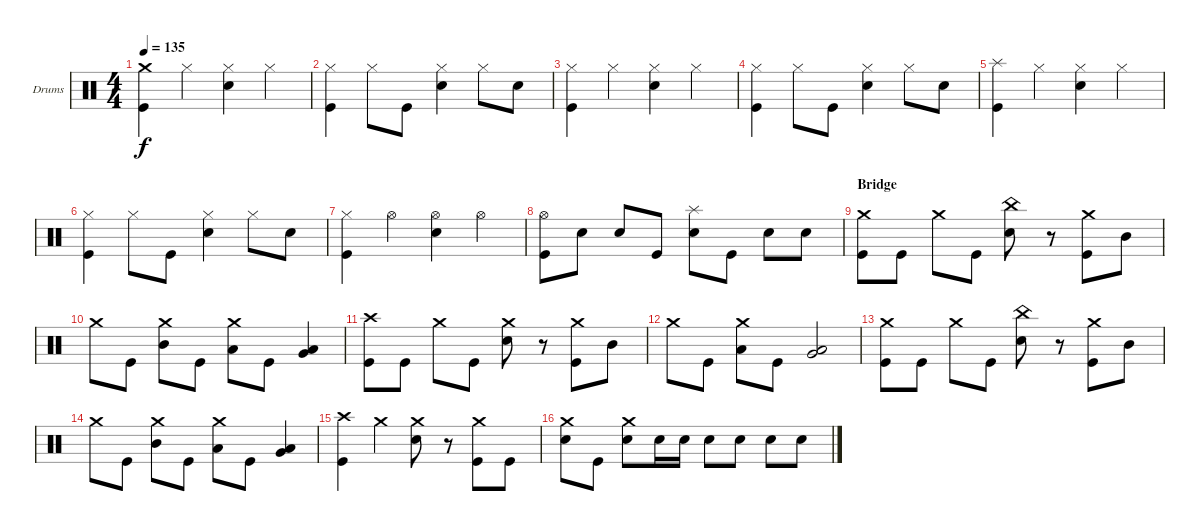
\defaultSystemsLayout 4
\bracketExtendMode groupsimilarinstruments
\firstSystemTrackNameOrientation horizontal
\otherSystemsTrackNameOrientation horizontal
\track ("Drumkit" "Drums") {instrument percussion}
\staff {score}
\articulation defaults
\ts (4 4)
\tempo 135
\clef neutral
\scale
0.5
\ks c
("Crash medium (hit)" "Kick (hit)").4{dy f} "Hi-Hat (closed)".4 ("Hi-Hat (closed)" "Snare (hit) 2").4 "Hi-Hat (closed)".4 |
\scale
0.5 ("Hi-Hat (closed)" "Kick (hit)").4 "Hi-Hat (closed)".8 "Kick (hit)".8 ("Hi-Hat (closed)" "Snare (hit) 2").4 "Hi-Hat (closed)".8 "Snare (hit) 2".8 |
\scale
0.5 ("Hi-Hat (closed)" "Kick (hit)").4 "Hi-Hat (closed)".4 ("Hi-Hat (closed)" "Snare (hit) 2").4 "Hi-Hat (closed)".4 |
\scale
0.5 ("Hi-Hat (closed)" "Kick (hit)").4 "Hi-Hat (closed)".8 "Kick (hit)".8 ("Hi-Hat (closed)" "Snare (hit) 2").4 "Hi-Hat (closed)".8 "Snare (hit) 2".8 |
\scale
0.5 ("Splash (hit)" "Kick (hit)").4 "Hi-Hat (closed)".4 ("Hi-Hat (closed)" "Snare (hit) 2").4 "Hi-Hat (closed)".4 |
\scale
0.5 ("Hi-Hat (closed)" "Kick (hit)").4 "Hi-Hat (closed)".8 "Kick (hit)".8 ("Hi-Hat (closed)" "Snare (hit) 2").4 "Hi-Hat (closed)".8 "Snare (hit) 2".8 |
\scale
0.5 ("Hi-Hat (closed)" "Kick (hit)").4 "Hi-Hat (open)".4 ("Hi-Hat (open)" "Snare (hit) 2").4 "Hi-Hat (open)".4 |
\scale
0.5 ("Hi-Hat (open)" "Kick (hit)").8 "Snare (hit) 2".8 "Snare (hit) 2".8 "Kick (hit)".8 ("Splash (hit)" "Snare (hit) 2").8 "Kick (hit)".8 "Snare (hit) 2".8 "Snare (hit) 2".8 |
\section ("" "Bridge")
\scale
0.5 ("Crash medium (hit)" "Kick (hit)").8 "Kick (hit)".8 "Crash medium (hit)".8 "Kick (hit)".8 ("China (hit)" "Snare (hit) 2").8 r.8 ("Crash medium (hit)" "Kick (hit)").8 "Mid Tom (hit)".8 |
\scale
0.5 "Crash medium (hit)".8 "Kick (hit)".8 ("Crash medium (hit)" "Mid Tom (hit)").8 "Kick (hit)".8 ("Crash medium (hit)" "Low Tom (hit)").8 "Kick (hit)".8 ("Low Tom (hit)" "Very Low Tom (hit)").4 |
\scale
0.5 ("Crash high (hit)" "Kick (hit)").8 "Kick (hit)".8 "Crash medium (hit)".8 "Kick (hit)".8 ("Crash medium (hit)" "Snare (hit) 2").8 r.8 ("Crash medium (hit)" "Kick (hit)").8 "Mid Tom (hit)".8 |
\scale
0.5 "Crash medium (hit)".8 "Kick (hit)".8 ("Crash medium (hit)" "Low Tom (hit)").8 "Kick (hit)".8 ("Low Tom (hit)" "Very Low Tom (hit)").2 |
\scale
0.5 ("Crash medium (hit)" "Kick (hit)").8 "Kick (hit)".8 "Crash medium (hit)".8 "Kick (hit)".8 ("China (hit)" "Snare (hit) 2").8 r.8 ("Crash medium (hit)" "Kick (hit)").8 "Mid Tom (hit)".8 |
\scale
0.5 "Crash medium (hit)".8 "Kick (hit)".8 ("Crash medium (hit)" "Mid Tom (hit)").8 "Kick (hit)".8 ("Crash medium (hit)" "Low Tom (hit)").8 "Kick (hit)".8 ("Low Tom (hit)" "Very Low Tom (hit)").4 |
\scale
0.5 ("Crash high (hit)" "Kick (hit)").4 "Crash medium (hit)".4 ("Crash medium (hit)" "Snare (hit) 2").8 r.8 ("Crash medium (hit)" "Kick (hit)").8 "Kick (hit)".8 |
\scale
0.5 ("Crash medium (hit)" "Snare (hit) 2").8 "Kick (hit)".8 ("Crash medium (hit)" "Snare (hit) 2").8 "Snare (hit) 2".16 "Snare (hit) 2".16 "Snare (hit) 2".8 "Snare (hit) 2".8 "Snare (hit) 2".8 "Snare (hit) 2".8
